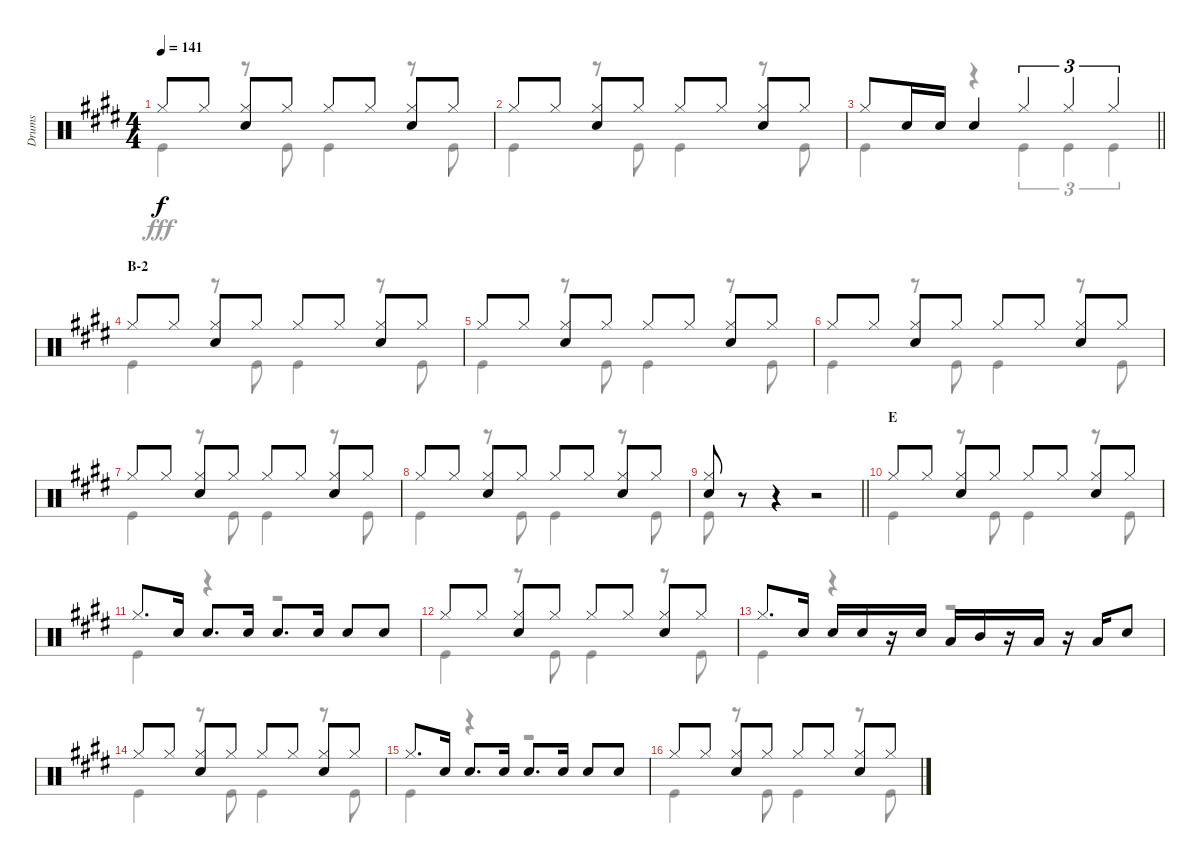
\track ("Drums" "Drums") {instrument percussion}
\staff {score}
\articulation defaults
\voice
\ts (4 4)
\tempo 141
\clef neutral
\ks e "Hi-Hat (closed)".8{dy f} "Hi-Hat (closed)".8
("Hi-Hat (closed)" "Snare (hit) 2").8 "Hi-Hat (closed)".8 "Hi-Hat (closed)".8 "Hi-Hat (closed)".8 ("Hi-Hat (closed)" "Snare (hit) 2").8 "Hi-Hat (closed)".8 |
"Hi-Hat (closed)".8 "Hi-Hat (closed)".8 ("Hi-Hat (closed)" "Snare (hit) 2").8 "Hi-Hat (closed)".8 "Hi-Hat (closed)".8 "Hi-Hat (closed)".8 ("Hi-Hat (closed)" "Snare (hit) 2").8 "Hi-Hat (closed)".8 |
\barLineRight lightlight "Hi-Hat (closed)".8 "Snare (hit) 2".16 "Snare (hit) 2".16 "Snare (hit) 2".4 "Hi-Hat (closed)".4{tu (3 2)} "Hi-Hat (closed)".4{tu (3 2)} "Hi-Hat (closed)".4{tu (3 2)}
|
\section ("" "B-2")
"Hi-Hat (closed)".8 "Hi-Hat (closed)".8 ("Hi-Hat (closed)" "Snare (hit) 2").8 "Hi-Hat (closed)".8 "Hi-Hat (closed)".8 "Hi-Hat (closed)".8 ("Hi-Hat (closed)" "Snare (hit) 2").8 "Hi-Hat (closed)".8 |
"Hi-Hat (closed)".8 "Hi-Hat (closed)".8 ("Hi-Hat (closed)" "Snare (hit) 2").8 "Hi-Hat (closed)".8 "Hi-Hat (closed)".8 "Hi-Hat (closed)".8 ("Hi-Hat (closed)" "Snare (hit) 2").8 "Hi-Hat (closed)".8 |
"Hi-Hat (closed)".8 "Hi-Hat (closed)".8 ("Hi-Hat (closed)" "Snare (hit) 2").8 "Hi-Hat (closed)".8 "Hi-Hat (closed)".8 "Hi-Hat (closed)".8 ("Hi-Hat (closed)" "Snare (hit) 2").8 "Hi-Hat (closed)".8 |
"Hi-Hat (closed)".8 "Hi-Hat (closed)".8 ("Hi-Hat (closed)" "Snare (hit) 2").8 "Hi-Hat (closed)".8 "Hi-Hat (closed)".8 "Hi-Hat (closed)".8 ("Hi-Hat (closed)" "Snare (hit) 2").8 "Hi-Hat (closed)".8 |
"Hi-Hat (closed)".8 "Hi-Hat (closed)".8 ("Hi-Hat (closed)" "Snare (hit) 2").8 "Hi-Hat (closed)".8 "Hi-Hat (closed)".8 "Hi-Hat (closed)".8 ("Hi-Hat (closed)" "Snare (hit) 2").8 "Hi-Hat (closed)".8 |
\barLineRight lightlight
("Hi-Hat (closed)" "Snare (hit) 2").8 r.8 r.4 r.2 |
\section ("" "E")
"Hi-Hat (closed)".8 "Hi-Hat (closed)".8 ("Hi-Hat (closed)" "Snare (hit) 2").8 "Hi-Hat (closed)".8 "Hi-Hat (closed)".8 "Hi-Hat (closed)".8 ("Hi-Hat (closed)" "Snare (hit) 2").8 "Hi-Hat (closed)".8 |
"Hi-Hat (closed)".8{d} "Snare (hit) 2".16 "Snare (hit) 2".8{d} "Snare (hit) 2".16 "Snare (hit) 2".8{d} "Snare (hit) 2".16 "Snare (hit) 2".8 "Snare (hit) 2".8 |
"Hi-Hat (closed)".8 "Hi-Hat (closed)".8 ("Hi-Hat (closed)" "Snare (hit) 2").8 "Hi-Hat (closed)".8 "Hi-Hat (closed)".8 "Hi-Hat (closed)".8 ("Hi-Hat (closed)" "Snare (hit) 2").8 "Hi-Hat (closed)".8 |
"Hi-Hat (closed)".8{d} "Snare (hit) 2".16 "Snare (hit) 2".16 "Snare (hit) 2".16 r.16 "Snare (hit) 2".16 "Low Tom (hit)".16 "Mid Tom (hit)".16 r.16 "Low Tom (hit)".16 r.16 "Low Tom (hit)".16 "Snare (hit) 2".8 |
"Hi-Hat (closed)".8 "Hi-Hat (closed)".8 ("Hi-Hat (closed)" "Snare (hit) 2").8 "Hi-Hat (closed)".8 "Hi-Hat (closed)".8 "Hi-Hat (closed)".8 ("Hi-Hat (closed)" "Snare (hit) 2").8 "Hi-Hat (closed)".8 |
"Hi-Hat (closed)".8{d} "Snare (hit) 2".16 "Snare (hit) 2".8{d} "Snare (hit) 2".16 "Snare (hit) 2".8{d} "Snare (hit) 2".16 "Snare (hit) 2".8 "Snare (hit) 2".8 |
"Hi-Hat (closed)".8 "Hi-Hat (closed)".8 ("Hi-Hat (closed)" "Snare (hit) 2").8 "Hi-Hat (closed)".8 "Hi-Hat (closed)".8 "Hi-Hat (closed)".8 ("Hi-Hat (closed)" "Snare (hit) 2").8 "Hi-Hat (closed)".8
\voice
\clef neutral
\ottava regular
\simile none
\ks e "Kick (hit)".4{dy fff}
r.8 "Kick (hit)".8 "Kick (hit)".4 r.8 "Kick (hit)".8 |
"Kick (hit)".4 r.8 "Kick (hit)".8 "Kick (hit)".4 r.8 "Kick (hit)".8 |
\barLineRight lightlight "Kick (hit)".4
r.4 "Kick (hit)".4{tu (3 2)} "Kick (hit)".4{tu (3 2)} "Kick (hit)".4{tu (3 2)} |
"Kick (hit)".4 r.8 "Kick (hit)".8 "Kick (hit)".4 r.8 "Kick (hit)".8 |
"Kick (hit)".4 r.8 "Kick (hit)".8 "Kick (hit)".4 r.8 "Kick (hit)".8 |
"Kick (hit)".4 r.8 "Kick (hit)".8 "Kick (hit)".4 r.8 "Kick (hit)".8 |
"Kick (hit)".4 r.8 "Kick (hit)".8 "Kick (hit)".4 r.8 "Kick (hit)".8 |
"Kick (hit)".4 r.8 "Kick (hit)".8 "Kick (hit)".4 r.8 "Kick (hit)".8 |
\barLineRight lightlight "Kick (hit)".8
r.8 r.4 r.2 |
"Kick (hit)".4 r.8 "Kick (hit)".8 "Kick (hit)".4 r.8 "Kick (hit)".8 |
"Kick (hit)".4 r.4 r.2 |
"Kick (hit)".4 r.8 "Kick (hit)".8 "Kick (hit)".4 r.8 "Kick (hit)".8 |
"Kick (hit)".4 r.4 r.2 |
"Kick (hit)".4 r.8 "Kick (hit)".8 "Kick (hit)".4 r.8 "Kick (hit)".8 |
"Kick (hit)".4 r.4 r.2 |
"Kick (hit)".4 r.8 "Kick (hit)".8 "Kick (hit)".4 r.8 "Kick (hit)".8
